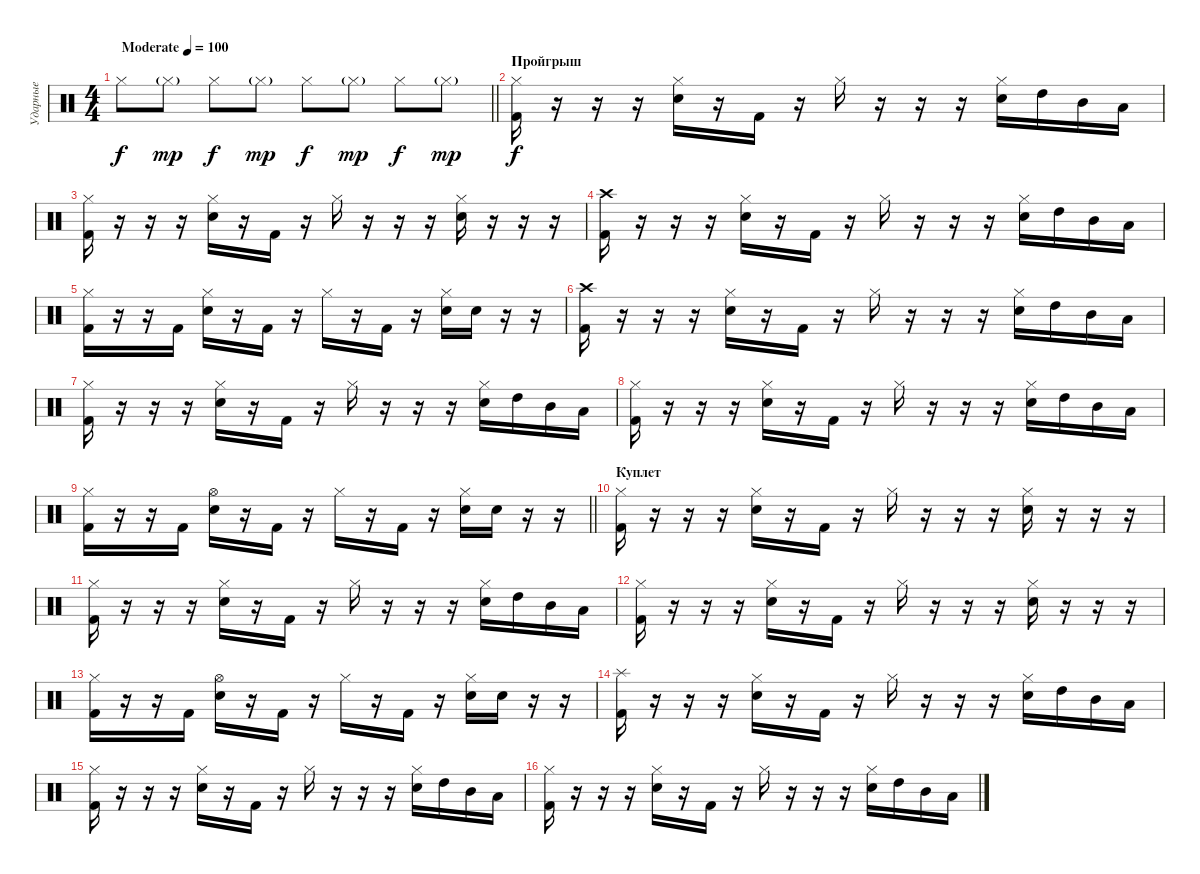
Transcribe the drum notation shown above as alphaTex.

\track ("Ударные" "Ударные") {instrument percussion}
\staff {score}
\articulation defaults
\ts (4 4)
\tempo (100 "Moderate")
\clef neutral
\barLineRight lightlight
\ks c "Hi-Hat (closed)".8{dy f} "Hi-Hat (closed)"{g}.8{dy mp} "Hi-Hat (closed)".8{dy f} "Hi-Hat (closed)"{g}.8{dy mp} "Hi-Hat (closed)".8{dy f} "Hi-Hat (closed)"{g}.8{dy mp} "Hi-Hat (closed)".8{dy f} "Hi-Hat (closed)"{g}.8{dy mp}
|
\section ("" "Пройгрыш")
("Hi-Hat (closed)" "Kick (hit) 2").16{dy f} r.16 r.16 r.16 ("Hi-Hat (closed)" "Electric Snare (hit)").16 r.16 "Kick (hit) 2".16 r.16 "Hi-Hat (closed)".16 r.16 r.16 r.16 ("Hi-Hat (closed)" "Electric Snare (hit)").16 "High Tom (hit)".16 "Mid Tom (hit)".16 "Low Tom (hit)".16 |
("Hi-Hat (closed)" "Kick (hit) 2").16 r.16 r.16 r.16 ("Hi-Hat (closed)" "Electric Snare (hit)").16 r.16 "Kick (hit) 2".16 r.16 "Hi-Hat (closed)".16 r.16 r.16 r.16 ("Hi-Hat (closed)" "Electric Snare (hit)").16 r.16 r.16 r.16 |
("Crash high (hit)" "Kick (hit) 2").16 r.16 r.16 r.16 ("Hi-Hat (closed)" "Electric Snare (hit)").16 r.16 "Kick (hit) 2".16 r.16 "Hi-Hat (closed)".16 r.16 r.16 r.16 ("Hi-Hat (closed)" "Electric Snare (hit)").16 "High Tom (hit)".16 "Mid Tom (hit)".16 "Low Tom (hit)".16 |
("Hi-Hat (closed)" "Kick (hit) 2").16 r.16 r.16 "Kick (hit) 2".16 ("Hi-Hat (closed)" "Electric Snare (hit)").16 r.16 "Kick (hit) 2".16 r.16 "Hi-Hat (closed)".16 r.16 "Kick (hit) 2".16 r.16 ("Hi-Hat (closed)" "Electric Snare (hit)").16 "Electric Snare (hit)".16 r.16 r.16 |
("Crash high (hit)" "Kick (hit) 2").16 r.16 r.16 r.16 ("Hi-Hat (closed)" "Electric Snare (hit)").16 r.16 "Kick (hit) 2".16 r.16 "Hi-Hat (closed)".16 r.16 r.16 r.16 ("Hi-Hat (closed)" "Electric Snare (hit)").16 "High Tom (hit)".16 "Mid Tom (hit)".16 "Low Tom (hit)".16 |
("Hi-Hat (closed)" "Kick (hit) 2").16 r.16 r.16 r.16 ("Hi-Hat (closed)" "Electric Snare (hit)").16 r.16 "Kick (hit) 2".16 r.16 "Hi-Hat (closed)".16 r.16 r.16 r.16 ("Hi-Hat (closed)" "Electric Snare (hit)").16 "High Tom (hit)".16 "Mid Tom (hit)".16 "Low Tom (hit)".16 |
("Hi-Hat (closed)" "Kick (hit) 2").16 r.16 r.16 r.16 ("Hi-Hat (closed)" "Electric Snare (hit)").16 r.16 "Kick (hit) 2".16 r.16 "Hi-Hat (closed)".16 r.16 r.16 r.16 ("Hi-Hat (closed)" "Electric Snare (hit)").16 "High Tom (hit)".16 "Mid Tom (hit)".16 "Low Tom (hit)".16 |
\barLineRight lightlight
("Hi-Hat (closed)" "Kick (hit) 2").16 r.16 r.16 "Kick (hit) 2".16 ("Hi-Hat (open)" "Electric Snare (hit)").16 r.16 "Kick (hit) 2".16 r.16 "Hi-Hat (closed)".16 r.16 "Kick (hit) 2".16 r.16 ("Hi-Hat (closed)" "Electric Snare (hit)").16 "Electric Snare (hit)".16 r.16 r.16 |
\section ("" "Куплет")
("Hi-Hat (closed)" "Kick (hit) 2").16 r.16 r.16 r.16 ("Hi-Hat (closed)" "Electric Snare (hit)").16 r.16 "Kick (hit) 2".16 r.16 "Hi-Hat (closed)".16 r.16 r.16 r.16 ("Hi-Hat (closed)" "Electric Snare (hit)").16 r.16 r.16 r.16 |
("Hi-Hat (closed)" "Kick (hit) 2").16 r.16 r.16 r.16 ("Hi-Hat (closed)" "Electric Snare (hit)").16 r.16 "Kick (hit) 2".16 r.16 "Hi-Hat (closed)".16 r.16 r.16 r.16 ("Hi-Hat (closed)" "Electric Snare (hit)").16 "High Tom (hit)".16 "Mid Tom (hit)".16 "Low Tom (hit)".16 |
("Hi-Hat (closed)" "Kick (hit) 2").16 r.16 r.16 r.16 ("Hi-Hat (closed)" "Electric Snare (hit)").16 r.16 "Kick (hit) 2".16 r.16 "Hi-Hat (closed)".16 r.16 r.16 r.16 ("Hi-Hat (closed)" "Electric Snare (hit)").16 r.16 r.16 r.16 |
("Hi-Hat (closed)" "Kick (hit) 2").16 r.16 r.16 "Kick (hit) 2".16 ("Hi-Hat (open)" "Electric Snare (hit)").16 r.16 "Kick (hit) 2".16 r.16 "Hi-Hat (closed)".16 r.16 "Kick (hit) 2".16 r.16 ("Hi-Hat (closed)" "Electric Snare (hit)").16 "Electric Snare (hit)".16 r.16 r.16 |
("Splash (hit)" "Kick (hit) 2").16 r.16 r.16 r.16 ("Hi-Hat (closed)" "Electric Snare (hit)").16 r.16 "Kick (hit) 2".16 r.16 "Hi-Hat (closed)".16 r.16 r.16 r.16 ("Hi-Hat (closed)" "Electric Snare (hit)").16 "High Tom (hit)".16 "Mid Tom (hit)".16 "Low Tom (hit)".16 |
("Hi-Hat (closed)" "Kick (hit) 2").16 r.16 r.16 r.16 ("Hi-Hat (closed)" "Electric Snare (hit)").16 r.16 "Kick (hit) 2".16 r.16 "Hi-Hat (closed)".16 r.16 r.16 r.16 ("Hi-Hat (closed)" "Electric Snare (hit)").16 "High Tom (hit)".16 "Mid Tom (hit)".16 "Low Tom (hit)".16 |
("Hi-Hat (closed)" "Kick (hit) 2").16 r.16 r.16 r.16 ("Hi-Hat (closed)" "Electric Snare (hit)").16 r.16 "Kick (hit) 2".16 r.16 "Hi-Hat (closed)".16 r.16 r.16 r.16 ("Hi-Hat (closed)" "Electric Snare (hit)").16 "High Tom (hit)".16 "Mid Tom (hit)".16 "Low Tom (hit)".16
